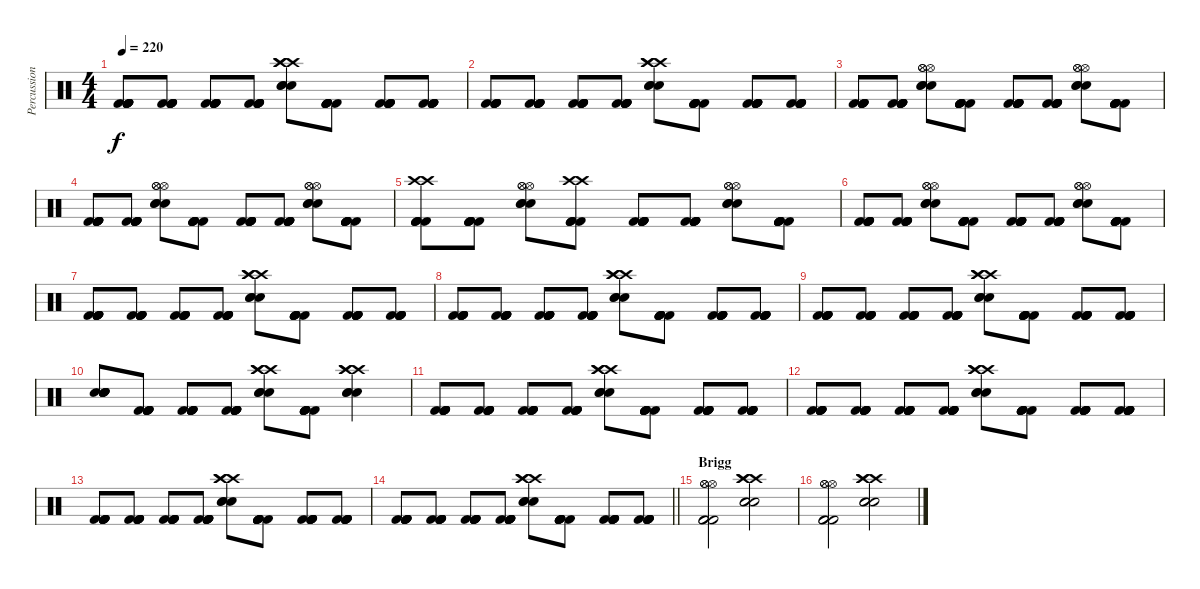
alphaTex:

\track ("Percussion" "Percussion") {instrument percussion}
\staff {score}
\articulation defaults
\ts (4 4)
\tempo 220
\clef neutral
\ks c
("Kick (hit) 2" "Kick (hit) 2" "Kick (hit) 2" "Kick (hit) 2" "Kick (hit) 2" "Kick (hit) 2").8{dy f} ("Kick (hit) 2" "Kick (hit) 2" "Kick (hit) 2" "Kick (hit) 2" "Kick (hit) 2" "Kick (hit) 2").8 ("Kick (hit) 2" "Kick (hit) 2" "Kick (hit) 2" "Kick (hit) 2" "Kick (hit) 2" "Kick (hit) 2").8 ("Kick (hit) 2" "Kick (hit) 2" "Kick (hit) 2" "Kick (hit) 2" "Kick (hit) 2" "Kick (hit) 2").8 ("Crash high (hit)" "Crash high (hit)" "Crash high (hit)" "Snare (hit) 2" "Snare (hit) 2" "Snare (hit) 2").8 ("Kick (hit) 2" "Kick (hit) 2" "Kick (hit) 2" "Kick (hit) 2" "Kick (hit) 2" "Kick (hit) 2").8 ("Kick (hit) 2" "Kick (hit) 2" "Kick (hit) 2" "Kick (hit) 2" "Kick (hit) 2" "Kick (hit) 2").8 ("Kick (hit) 2" "Kick (hit) 2" "Kick (hit) 2" "Kick (hit) 2" "Kick (hit) 2" "Kick (hit) 2").8 |
("Kick (hit) 2" "Kick (hit) 2" "Kick (hit) 2" "Kick (hit) 2" "Kick (hit) 2" "Kick (hit) 2").8 ("Kick (hit) 2" "Kick (hit) 2" "Kick (hit) 2" "Kick (hit) 2" "Kick (hit) 2" "Kick (hit) 2").8 ("Kick (hit) 2" "Kick (hit) 2" "Kick (hit) 2" "Kick (hit) 2" "Kick (hit) 2" "Kick (hit) 2").8 ("Kick (hit) 2" "Kick (hit) 2" "Kick (hit) 2" "Kick (hit) 2" "Kick (hit) 2" "Kick (hit) 2").8 ("Crash high (hit)" "Crash high (hit)" "Crash high (hit)" "Snare (hit) 2" "Snare (hit) 2" "Snare (hit) 2").8 ("Kick (hit) 2" "Kick (hit) 2" "Kick (hit) 2" "Kick (hit) 2" "Kick (hit) 2" "Kick (hit) 2").8 ("Kick (hit) 2" "Kick (hit) 2" "Kick (hit) 2" "Kick (hit) 2" "Kick (hit) 2" "Kick (hit) 2").8 ("Kick (hit) 2" "Kick (hit) 2" "Kick (hit) 2" "Kick (hit) 2" "Kick (hit) 2" "Kick (hit) 2").8 |
("Kick (hit) 2" "Kick (hit) 2" "Kick (hit) 2" "Kick (hit) 2" "Kick (hit) 2" "Kick (hit) 2").8 ("Kick (hit) 2" "Kick (hit) 2" "Kick (hit) 2" "Kick (hit) 2" "Kick (hit) 2" "Kick (hit) 2").8 ("Hi-Hat (open)" "Hi-Hat (open)" "Hi-Hat (open)" "Snare (hit) 2" "Snare (hit) 2" "Snare (hit) 2").8 ("Kick (hit) 2" "Kick (hit) 2" "Kick (hit) 2" "Kick (hit) 2" "Kick (hit) 2" "Kick (hit) 2").8 ("Kick (hit) 2" "Kick (hit) 2" "Kick (hit) 2" "Kick (hit) 2" "Kick (hit) 2" "Kick (hit) 2").8 ("Kick (hit) 2" "Kick (hit) 2" "Kick (hit) 2" "Kick (hit) 2" "Kick (hit) 2" "Kick (hit) 2").8 ("Hi-Hat (open)" "Hi-Hat (open)" "Hi-Hat (open)" "Snare (hit) 2" "Snare (hit) 2" "Snare (hit) 2").8 ("Kick (hit) 2" "Kick (hit) 2" "Kick (hit) 2" "Kick (hit) 2" "Kick (hit) 2" "Kick (hit) 2").8 |
("Kick (hit) 2" "Kick (hit) 2" "Kick (hit) 2" "Kick (hit) 2" "Kick (hit) 2" "Kick (hit) 2").8 ("Kick (hit) 2" "Kick (hit) 2" "Kick (hit) 2" "Kick (hit) 2" "Kick (hit) 2" "Kick (hit) 2").8 ("Hi-Hat (open)" "Hi-Hat (open)" "Hi-Hat (open)" "Snare (hit) 2" "Snare (hit) 2" "Snare (hit) 2").8 ("Kick (hit) 2" "Kick (hit) 2" "Kick (hit) 2" "Kick (hit) 2" "Kick (hit) 2" "Kick (hit) 2").8 ("Kick (hit) 2" "Kick (hit) 2" "Kick (hit) 2" "Kick (hit) 2" "Kick (hit) 2" "Kick (hit) 2").8 ("Kick (hit) 2" "Kick (hit) 2" "Kick (hit) 2" "Kick (hit) 2" "Kick (hit) 2" "Kick (hit) 2").8 ("Hi-Hat (open)" "Hi-Hat (open)" "Hi-Hat (open)" "Snare (hit) 2" "Snare (hit) 2" "Snare (hit) 2").8 ("Kick (hit) 2" "Kick (hit) 2" "Kick (hit) 2" "Kick (hit) 2" "Kick (hit) 2" "Kick (hit) 2").8 |
("Crash high (hit)" "Crash high (hit)" "Kick (hit) 2" "Kick (hit) 2" "Kick (hit) 2" "Kick (hit) 2").8 ("Kick (hit) 2" "Kick (hit) 2" "Kick (hit) 2" "Kick (hit) 2" "Kick (hit) 2" "Kick (hit) 2").8 ("Hi-Hat (open)" "Hi-Hat (open)" "Hi-Hat (open)" "Snare (hit) 2" "Snare (hit) 2" "Snare (hit) 2").8 ("Crash high (hit)" "Crash high (hit)" "Kick (hit) 2" "Kick (hit) 2" "Kick (hit) 2" "Kick (hit) 2").8 ("Kick (hit) 2" "Kick (hit) 2" "Kick (hit) 2" "Kick (hit) 2" "Kick (hit) 2" "Kick (hit) 2").8 ("Kick (hit) 2" "Kick (hit) 2" "Kick (hit) 2" "Kick (hit) 2" "Kick (hit) 2" "Kick (hit) 2").8 ("Hi-Hat (open)" "Hi-Hat (open)" "Hi-Hat (open)" "Snare (hit) 2" "Snare (hit) 2" "Snare (hit) 2").8 ("Kick (hit) 2" "Kick (hit) 2" "Kick (hit) 2" "Kick (hit) 2" "Kick (hit) 2" "Kick (hit) 2").8 |
("Kick (hit) 2" "Kick (hit) 2" "Kick (hit) 2" "Kick (hit) 2" "Kick (hit) 2" "Kick (hit) 2").8 ("Kick (hit) 2" "Kick (hit) 2" "Kick (hit) 2" "Kick (hit) 2" "Kick (hit) 2" "Kick (hit) 2").8 ("Hi-Hat (open)" "Hi-Hat (open)" "Hi-Hat (open)" "Snare (hit) 2" "Snare (hit) 2" "Snare (hit) 2").8 ("Kick (hit) 2" "Kick (hit) 2" "Kick (hit) 2" "Kick (hit) 2" "Kick (hit) 2" "Kick (hit) 2").8 ("Kick (hit) 2" "Kick (hit) 2" "Kick (hit) 2" "Kick (hit) 2" "Kick (hit) 2" "Kick (hit) 2").8 ("Kick (hit) 2" "Kick (hit) 2" "Kick (hit) 2" "Kick (hit) 2" "Kick (hit) 2" "Kick (hit) 2").8 ("Hi-Hat (open)" "Hi-Hat (open)" "Hi-Hat (open)" "Snare (hit) 2" "Snare (hit) 2" "Snare (hit) 2").8 ("Kick (hit) 2" "Kick (hit) 2" "Kick (hit) 2" "Kick (hit) 2" "Kick (hit) 2" "Kick (hit) 2").8 |
("Kick (hit) 2" "Kick (hit) 2" "Kick (hit) 2" "Kick (hit) 2" "Kick (hit) 2" "Kick (hit) 2").8 ("Kick (hit) 2" "Kick (hit) 2" "Kick (hit) 2" "Kick (hit) 2" "Kick (hit) 2" "Kick (hit) 2").8 ("Kick (hit) 2" "Kick (hit) 2" "Kick (hit) 2" "Kick (hit) 2" "Kick (hit) 2" "Kick (hit) 2").8 ("Kick (hit) 2" "Kick (hit) 2" "Kick (hit) 2" "Kick (hit) 2" "Kick (hit) 2" "Kick (hit) 2").8 ("Crash high (hit)" "Crash high (hit)" "Crash high (hit)" "Snare (hit) 2" "Snare (hit) 2" "Snare (hit) 2").8 ("Kick (hit) 2" "Kick (hit) 2" "Kick (hit) 2" "Kick (hit) 2" "Kick (hit) 2" "Kick (hit) 2").8 ("Kick (hit) 2" "Kick (hit) 2" "Kick (hit) 2" "Kick (hit) 2" "Kick (hit) 2" "Kick (hit) 2").8 ("Kick (hit) 2" "Kick (hit) 2" "Kick (hit) 2" "Kick (hit) 2" "Kick (hit) 2" "Kick (hit) 2").8 |
("Kick (hit) 2" "Kick (hit) 2" "Kick (hit) 2" "Kick (hit) 2" "Kick (hit) 2" "Kick (hit) 2").8 ("Kick (hit) 2" "Kick (hit) 2" "Kick (hit) 2" "Kick (hit) 2" "Kick (hit) 2" "Kick (hit) 2").8 ("Kick (hit) 2" "Kick (hit) 2" "Kick (hit) 2" "Kick (hit) 2" "Kick (hit) 2" "Kick (hit) 2").8 ("Kick (hit) 2" "Kick (hit) 2" "Kick (hit) 2" "Kick (hit) 2" "Kick (hit) 2" "Kick (hit) 2").8 ("Crash high (hit)" "Crash high (hit)" "Crash high (hit)" "Snare (hit) 2" "Snare (hit) 2" "Snare (hit) 2").8 ("Kick (hit) 2" "Kick (hit) 2" "Kick (hit) 2" "Kick (hit) 2" "Kick (hit) 2" "Kick (hit) 2").8 ("Kick (hit) 2" "Kick (hit) 2" "Kick (hit) 2" "Kick (hit) 2" "Kick (hit) 2" "Kick (hit) 2").8 ("Kick (hit) 2" "Kick (hit) 2" "Kick (hit) 2" "Kick (hit) 2" "Kick (hit) 2" "Kick (hit) 2").8 |
("Kick (hit) 2" "Kick (hit) 2" "Kick (hit) 2" "Kick (hit) 2" "Kick (hit) 2" "Kick (hit) 2").8 ("Kick (hit) 2" "Kick (hit) 2" "Kick (hit) 2" "Kick (hit) 2" "Kick (hit) 2" "Kick (hit) 2").8 ("Kick (hit) 2" "Kick (hit) 2" "Kick (hit) 2" "Kick (hit) 2" "Kick (hit) 2" "Kick (hit) 2").8 ("Kick (hit) 2" "Kick (hit) 2" "Kick (hit) 2" "Kick (hit) 2" "Kick (hit) 2" "Kick (hit) 2").8 ("Crash high (hit)" "Crash high (hit)" "Crash high (hit)" "Snare (hit) 2" "Snare (hit) 2" "Snare (hit) 2").8 ("Kick (hit) 2" "Kick (hit) 2" "Kick (hit) 2" "Kick (hit) 2" "Kick (hit) 2" "Kick (hit) 2").8 ("Kick (hit) 2" "Kick (hit) 2" "Kick (hit) 2" "Kick (hit) 2" "Kick (hit) 2" "Kick (hit) 2").8 ("Kick (hit) 2" "Kick (hit) 2" "Kick (hit) 2" "Kick (hit) 2" "Kick (hit) 2" "Kick (hit) 2").8 |
("Snare (hit) 2" "Snare (hit) 2" "Snare (hit) 2" "Snare (hit) 2" "Snare (hit) 2" "Snare (hit) 2").8 ("Kick (hit) 2" "Kick (hit) 2" "Kick (hit) 2" "Kick (hit) 2" "Kick (hit) 2" "Kick (hit) 2").8 ("Kick (hit) 2" "Kick (hit) 2" "Kick (hit) 2" "Kick (hit) 2" "Kick (hit) 2" "Kick (hit) 2").8 ("Kick (hit) 2" "Kick (hit) 2" "Kick (hit) 2" "Kick (hit) 2" "Kick (hit) 2" "Kick (hit) 2").8 ("Crash high (hit)" "Crash high (hit)" "Crash high (hit)" "Snare (hit) 2" "Snare (hit) 2" "Snare (hit) 2").8 ("Kick (hit) 2" "Kick (hit) 2" "Kick (hit) 2" "Kick (hit) 2" "Kick (hit) 2" "Kick (hit) 2").8 ("Crash high (hit)" "Crash high (hit)" "Crash high (hit)" "Snare (hit) 2" "Snare (hit) 2" "Snare (hit) 2").4 |
("Kick (hit) 2" "Kick (hit) 2" "Kick (hit) 2" "Kick (hit) 2" "Kick (hit) 2" "Kick (hit) 2").8 ("Kick (hit) 2" "Kick (hit) 2" "Kick (hit) 2" "Kick (hit) 2" "Kick (hit) 2" "Kick (hit) 2").8 ("Kick (hit) 2" "Kick (hit) 2" "Kick (hit) 2" "Kick (hit) 2" "Kick (hit) 2" "Kick (hit) 2").8 ("Kick (hit) 2" "Kick (hit) 2" "Kick (hit) 2" "Kick (hit) 2" "Kick (hit) 2" "Kick (hit) 2").8 ("Crash high (hit)" "Crash high (hit)" "Crash high (hit)" "Snare (hit) 2" "Snare (hit) 2" "Snare (hit) 2").8 ("Kick (hit) 2" "Kick (hit) 2" "Kick (hit) 2" "Kick (hit) 2" "Kick (hit) 2" "Kick (hit) 2").8 ("Kick (hit) 2" "Kick (hit) 2" "Kick (hit) 2" "Kick (hit) 2" "Kick (hit) 2" "Kick (hit) 2").8 ("Kick (hit) 2" "Kick (hit) 2" "Kick (hit) 2" "Kick (hit) 2" "Kick (hit) 2" "Kick (hit) 2").8 |
("Kick (hit) 2" "Kick (hit) 2" "Kick (hit) 2" "Kick (hit) 2" "Kick (hit) 2" "Kick (hit) 2").8 ("Kick (hit) 2" "Kick (hit) 2" "Kick (hit) 2" "Kick (hit) 2" "Kick (hit) 2" "Kick (hit) 2").8 ("Kick (hit) 2" "Kick (hit) 2" "Kick (hit) 2" "Kick (hit) 2" "Kick (hit) 2" "Kick (hit) 2").8 ("Kick (hit) 2" "Kick (hit) 2" "Kick (hit) 2" "Kick (hit) 2" "Kick (hit) 2" "Kick (hit) 2").8 ("Crash high (hit)" "Crash high (hit)" "Crash high (hit)" "Snare (hit) 2" "Snare (hit) 2" "Snare (hit) 2").8 ("Kick (hit) 2" "Kick (hit) 2" "Kick (hit) 2" "Kick (hit) 2" "Kick (hit) 2" "Kick (hit) 2").8 ("Kick (hit) 2" "Kick (hit) 2" "Kick (hit) 2" "Kick (hit) 2" "Kick (hit) 2" "Kick (hit) 2").8 ("Kick (hit) 2" "Kick (hit) 2" "Kick (hit) 2" "Kick (hit) 2" "Kick (hit) 2" "Kick (hit) 2").8 |
("Kick (hit) 2" "Kick (hit) 2" "Kick (hit) 2" "Kick (hit) 2" "Kick (hit) 2" "Kick (hit) 2").8 ("Kick (hit) 2" "Kick (hit) 2" "Kick (hit) 2" "Kick (hit) 2" "Kick (hit) 2" "Kick (hit) 2").8 ("Kick (hit) 2" "Kick (hit) 2" "Kick (hit) 2" "Kick (hit) 2" "Kick (hit) 2" "Kick (hit) 2").8 ("Kick (hit) 2" "Kick (hit) 2" "Kick (hit) 2" "Kick (hit) 2" "Kick (hit) 2" "Kick (hit) 2").8 ("Crash high (hit)" "Crash high (hit)" "Crash high (hit)" "Snare (hit) 2" "Snare (hit) 2" "Snare (hit) 2").8 ("Kick (hit) 2" "Kick (hit) 2" "Kick (hit) 2" "Kick (hit) 2" "Kick (hit) 2" "Kick (hit) 2").8 ("Kick (hit) 2" "Kick (hit) 2" "Kick (hit) 2" "Kick (hit) 2" "Kick (hit) 2" "Kick (hit) 2").8 ("Kick (hit) 2" "Kick (hit) 2" "Kick (hit) 2" "Kick (hit) 2" "Kick (hit) 2" "Kick (hit) 2").8 |
\barLineRight lightlight
("Kick (hit) 2" "Kick (hit) 2" "Kick (hit) 2" "Kick (hit) 2" "Kick (hit) 2" "Kick (hit) 2").8 ("Kick (hit) 2" "Kick (hit) 2" "Kick (hit) 2" "Kick (hit) 2" "Kick (hit) 2" "Kick (hit) 2").8 ("Kick (hit) 2" "Kick (hit) 2" "Kick (hit) 2" "Kick (hit) 2" "Kick (hit) 2" "Kick (hit) 2").8 ("Kick (hit) 2" "Kick (hit) 2" "Kick (hit) 2" "Kick (hit) 2" "Kick (hit) 2" "Kick (hit) 2").8 ("Crash high (hit)" "Crash high (hit)" "Crash high (hit)" "Snare (hit) 2" "Snare (hit) 2" "Snare (hit) 2").8 ("Kick (hit) 2" "Kick (hit) 2" "Kick (hit) 2" "Kick (hit) 2" "Kick (hit) 2" "Kick (hit) 2").8 ("Kick (hit) 2" "Kick (hit) 2" "Kick (hit) 2" "Kick (hit) 2" "Kick (hit) 2" "Kick (hit) 2").8 ("Kick (hit) 2" "Kick (hit) 2" "Kick (hit) 2" "Kick (hit) 2" "Kick (hit) 2" "Kick (hit) 2").8 |
\section ("" "Brigg")
("Hi-Hat (open)" "Hi-Hat (open)" "Hi-Hat (open)" "Kick (hit) 2" "Kick (hit) 2" "Kick (hit) 2").2 ("Crash high (hit)" "Crash high (hit)" "Crash high (hit)" "Snare (hit) 2" "Snare (hit) 2" "Snare (hit) 2").2 |
("Hi-Hat (open)" "Hi-Hat (open)" "Hi-Hat (open)" "Kick (hit) 2" "Kick (hit) 2" "Kick (hit) 2").2 ("Crash high (hit)" "Crash high (hit)" "Crash high (hit)" "Snare (hit) 2" "Snare (hit) 2" "Snare (hit) 2").2
